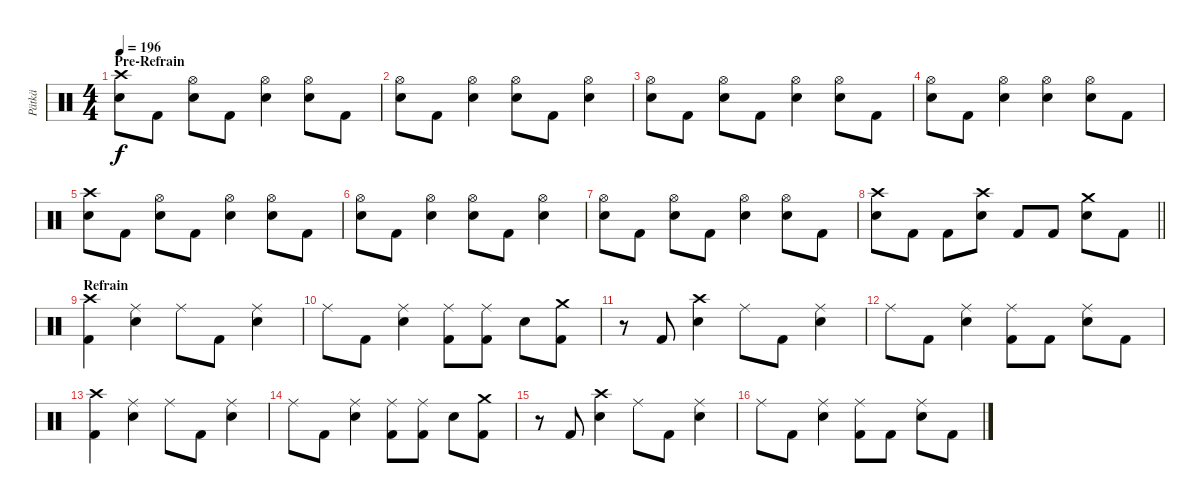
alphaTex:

\track ("Pätkä" "Pätkä") {instrument percussion}
\staff {score}
\articulation defaults
\ts (4 4)
\section ("" "Pre-Refrain")
\tempo 196
\clef neutral
\ks c
("Crash high (hit)" "Electric Snare (hit)").8{dy f} "Kick (hit) 2".8 ("Hi-Hat (open)" "Electric Snare (hit)").8 "Kick (hit) 2".8 ("Hi-Hat (open)" "Electric Snare (hit)").4 ("Hi-Hat (open)" "Electric Snare (hit)").8 "Kick (hit) 2".8 |
("Hi-Hat (open)" "Electric Snare (hit)").8 "Kick (hit) 2".8 ("Hi-Hat (open)" "Electric Snare (hit)").4 ("Hi-Hat (open)" "Electric Snare (hit)").8 "Kick (hit) 2".8 ("Hi-Hat (open)" "Electric Snare (hit)").4 |
("Hi-Hat (open)" "Electric Snare (hit)").8 "Kick (hit) 2".8 ("Hi-Hat (open)" "Electric Snare (hit)").8 "Kick (hit) 2".8 ("Hi-Hat (open)" "Electric Snare (hit)").4 ("Hi-Hat (open)" "Electric Snare (hit)").8 "Kick (hit) 2".8 |
("Hi-Hat (open)" "Electric Snare (hit)").8 "Kick (hit) 2".8 ("Hi-Hat (open)" "Electric Snare (hit)").4 ("Hi-Hat (open)" "Electric Snare (hit)").4 ("Hi-Hat (open)" "Electric Snare (hit)").8 "Kick (hit) 2".8 |
("Crash high (hit)" "Electric Snare (hit)").8 "Kick (hit) 2".8 ("Hi-Hat (open)" "Electric Snare (hit)").8 "Kick (hit) 2".8 ("Hi-Hat (open)" "Electric Snare (hit)").4 ("Hi-Hat (open)" "Electric Snare (hit)").8 "Kick (hit) 2".8 |
("Hi-Hat (open)" "Electric Snare (hit)").8 "Kick (hit) 2".8 ("Hi-Hat (open)" "Electric Snare (hit)").4 ("Hi-Hat (open)" "Electric Snare (hit)").8 "Kick (hit) 2".8 ("Hi-Hat (open)" "Electric Snare (hit)").4 |
("Hi-Hat (open)" "Electric Snare (hit)").8 "Kick (hit) 2".8 ("Hi-Hat (open)" "Electric Snare (hit)").8 "Kick (hit) 2".8 ("Hi-Hat (open)" "Electric Snare (hit)").4 ("Hi-Hat (open)" "Electric Snare (hit)").8 "Kick (hit) 2".8 |
\barLineRight lightlight
("Crash high (hit)" "Electric Snare (hit)").8 "Kick (hit) 2".8 "Kick (hit) 2".8 ("Crash high (hit)" "Electric Snare (hit)").8 "Kick (hit) 2".8 "Kick (hit) 2".8 ("Crash medium (hit)" "Electric Snare (hit)").8 "Kick (hit) 2".8 |
\section ("" "Refrain")
("Crash high (hit)" "Kick (hit) 2").4 ("Ride (middle)" "Electric Snare (hit)").4 "Ride (middle)".8 "Kick (hit) 2".8 ("Ride (middle)" "Electric Snare (hit)").4 |
"Ride (middle)".8 "Kick (hit) 2".8 ("Ride (middle)" "Electric Snare (hit)").4 ("Ride (middle)" "Kick (hit) 2").8 ("Ride (middle)" "Kick (hit) 2").8 "Electric Snare (hit)".8 ("Crash medium (hit)" "Kick (hit) 2").8 |
r.8 "Kick (hit) 2".8 ("Crash high (hit)" "Electric Snare (hit)").4 "Ride (middle)".8 "Kick (hit) 2".8 ("Ride (middle)" "Electric Snare (hit)").4 |
"Ride (middle)".8 "Kick (hit) 2".8 ("Ride (middle)" "Electric Snare (hit)").4 ("Ride (middle)" "Kick (hit) 2").8 "Kick (hit) 2".8 ("Ride (middle)" "Electric Snare (hit)").8 "Kick (hit) 2".8 |
("Crash high (hit)" "Kick (hit) 2").4 ("Ride (middle)" "Electric Snare (hit)").4 "Ride (middle)".8 "Kick (hit) 2".8 ("Ride (middle)" "Electric Snare (hit)").4 |
"Ride (middle)".8 "Kick (hit) 2".8 ("Ride (middle)" "Electric Snare (hit)").4 ("Ride (middle)" "Kick (hit) 2").8 ("Ride (middle)" "Kick (hit) 2").8 "Electric Snare (hit)".8 ("Crash medium (hit)" "Kick (hit) 2").8 |
r.8 "Kick (hit) 2".8 ("Crash high (hit)" "Electric Snare (hit)").4 "Ride (middle)".8 "Kick (hit) 2".8 ("Ride (middle)" "Electric Snare (hit)").4 |
"Ride (middle)".8 "Kick (hit) 2".8 ("Ride (middle)" "Electric Snare (hit)").4 ("Ride (middle)" "Kick (hit) 2").8 "Kick (hit) 2".8 ("Ride (middle)" "Electric Snare (hit)").8 "Kick (hit) 2".8
